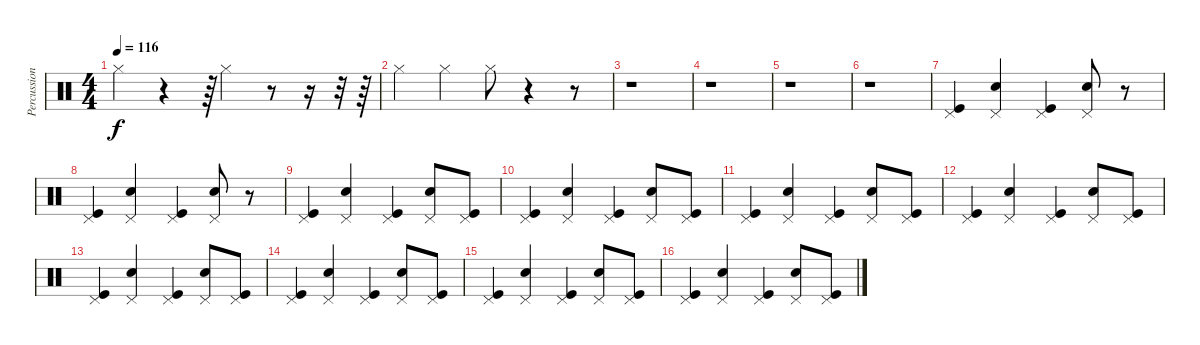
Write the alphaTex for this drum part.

\track ("Percussions" "Percussion") {instrument percussion}
\staff {score}
\articulation defaults
\ts (4 4)
\tempo 116
\clef neutral
\ks c "Hi-Hat (closed)".4{dy f}
r.4 r.64 "Hi-Hat (closed)".4 r.8 r.16 r.32 r.64 |
"Hi-Hat (closed)".4 "Hi-Hat (closed)".4 "Hi-Hat (closed)".8 r.4 r.8 |
r.1 |
r.1 |
r.1 |
r.1 |
("Pedal Hi-Hat (hit)" "Kick (hit)").4 ("Pedal Hi-Hat (hit)" "Electric Snare (hit)").4 ("Pedal Hi-Hat (hit)" "Kick (hit)").4 ("Pedal Hi-Hat (hit)" "Electric Snare (hit)").8 r.8 |
("Pedal Hi-Hat (hit)" "Kick (hit)").4 ("Pedal Hi-Hat (hit)" "Electric Snare (hit)").4 ("Pedal Hi-Hat (hit)" "Kick (hit)").4 ("Pedal Hi-Hat (hit)" "Electric Snare (hit)").8 r.8 |
("Pedal Hi-Hat (hit)" "Kick (hit)").4 ("Pedal Hi-Hat (hit)" "Electric Snare (hit)").4 ("Pedal Hi-Hat (hit)" "Kick (hit)").4 ("Electric Snare (hit)" "Pedal Hi-Hat (hit)").8 ("Kick (hit)" "Pedal Hi-Hat (hit)").8 |
("Pedal Hi-Hat (hit)" "Kick (hit)").4 ("Pedal Hi-Hat (hit)" "Electric Snare (hit)").4 ("Pedal Hi-Hat (hit)" "Kick (hit)").4 ("Electric Snare (hit)" "Pedal Hi-Hat (hit)").8 ("Kick (hit)" "Pedal Hi-Hat (hit)").8 |
("Pedal Hi-Hat (hit)" "Kick (hit)").4 ("Pedal Hi-Hat (hit)" "Electric Snare (hit)").4 ("Pedal Hi-Hat (hit)" "Kick (hit)").4 ("Pedal Hi-Hat (hit)" "Electric Snare (hit)").8 ("Pedal Hi-Hat (hit)" "Kick (hit)").8 |
("Pedal Hi-Hat (hit)" "Kick (hit)").4 ("Pedal Hi-Hat (hit)" "Electric Snare (hit)").4 ("Pedal Hi-Hat (hit)" "Kick (hit)").4 ("Pedal Hi-Hat (hit)" "Electric Snare (hit)").8 ("Pedal Hi-Hat (hit)" "Kick (hit)").8 |
("Pedal Hi-Hat (hit)" "Kick (hit)").4 ("Pedal Hi-Hat (hit)" "Electric Snare (hit)").4 ("Pedal Hi-Hat (hit)" "Kick (hit)").4 ("Pedal Hi-Hat (hit)" "Electric Snare (hit)").8 ("Pedal Hi-Hat (hit)" "Kick (hit)").8 |
("Pedal Hi-Hat (hit)" "Kick (hit)").4 ("Pedal Hi-Hat (hit)" "Electric Snare (hit)").4 ("Pedal Hi-Hat (hit)" "Kick (hit)").4 ("Pedal Hi-Hat (hit)" "Electric Snare (hit)").8 ("Pedal Hi-Hat (hit)" "Kick (hit)").8 |
("Pedal Hi-Hat (hit)" "Kick (hit)").4 ("Pedal Hi-Hat (hit)" "Electric Snare (hit)").4 ("Pedal Hi-Hat (hit)" "Kick (hit)").4 ("Pedal Hi-Hat (hit)" "Electric Snare (hit)").8 ("Pedal Hi-Hat (hit)" "Kick (hit)").8 |
("Pedal Hi-Hat (hit)" "Kick (hit)").4 ("Pedal Hi-Hat (hit)" "Electric Snare (hit)").4 ("Pedal Hi-Hat (hit)" "Kick (hit)").4 ("Pedal Hi-Hat (hit)" "Electric Snare (hit)").8 ("Pedal Hi-Hat (hit)" "Kick (hit)").8
